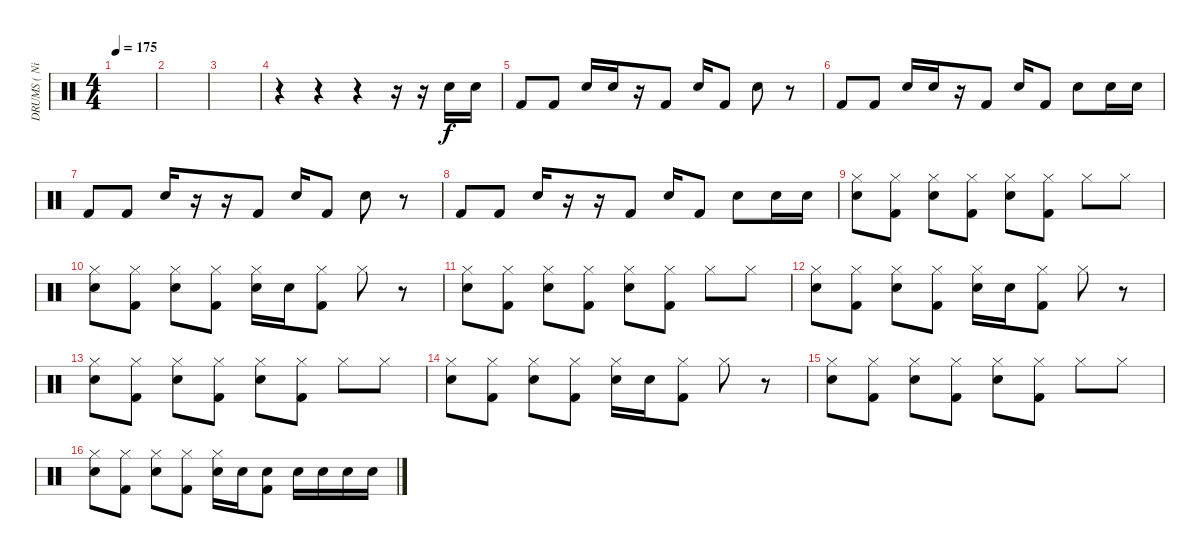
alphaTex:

\track ("DRUMS ( Nick Oshiro )" "DRUMS ( Ni") {instrument percussion}
\staff {score}
\articulation defaults
\ts (4 4)
\tempo 175
\clef neutral
\ks c
|
|
|
r.4 r.4 r.4 r.16 r.16 "Electric Snare (hit)".16 "Electric Snare (hit)".16 |
"Kick (hit) 2".8 "Kick (hit) 2".8 "Electric Snare (hit)".16 "Electric Snare (hit)".16 r.16 "Kick (hit) 2".8 "Electric Snare (hit)".16 "Kick (hit) 2".8 "Electric Snare (hit)".8 r.8 |
"Kick (hit) 2".8 "Kick (hit) 2".8 "Electric Snare (hit)".16 "Electric Snare (hit)".16 r.16 "Kick (hit) 2".8 "Electric Snare (hit)".16 "Kick (hit) 2".8 "Electric Snare (hit)".8 "Electric Snare (hit)".16 "Electric Snare (hit)".16 |
"Kick (hit) 2".8 "Kick (hit) 2".8 "Electric Snare (hit)".16 r.16 r.16 "Kick (hit) 2".8 "Electric Snare (hit)".16 "Kick (hit) 2".8 "Electric Snare (hit)".8 r.8 |
"Kick (hit) 2".8 "Kick (hit) 2".8 "Electric Snare (hit)".16 r.16 r.16 "Kick (hit) 2".8 "Electric Snare (hit)".16 "Kick (hit) 2".8 "Electric Snare (hit)".8 "Electric Snare (hit)".16 "Electric Snare (hit)".16 |
("Electric Snare (hit)" "Hi-Hat (closed)").8 ("Kick (hit) 2" "Hi-Hat (closed)").8 ("Electric Snare (hit)" "Hi-Hat (closed)").8 ("Kick (hit) 2" "Hi-Hat (closed)").8 ("Electric Snare (hit)" "Hi-Hat (closed)").8 ("Kick (hit) 2" "Hi-Hat (closed)").8 "Hi-Hat (closed)".8 "Hi-Hat (closed)".8 |
("Electric Snare (hit)" "Hi-Hat (closed)").8 ("Kick (hit) 2" "Hi-Hat (closed)").8 ("Electric Snare (hit)" "Hi-Hat (closed)").8 ("Kick (hit) 2" "Hi-Hat (closed)").8 ("Electric Snare (hit)" "Hi-Hat (closed)").16 "Electric Snare (hit)".16 ("Kick (hit) 2" "Hi-Hat (closed)").8 "Hi-Hat (closed)".8 r.8 |
("Electric Snare (hit)" "Hi-Hat (closed)").8 ("Kick (hit) 2" "Hi-Hat (closed)").8 ("Electric Snare (hit)" "Hi-Hat (closed)").8 ("Kick (hit) 2" "Hi-Hat (closed)").8 ("Electric Snare (hit)" "Hi-Hat (closed)").8 ("Kick (hit) 2" "Hi-Hat (closed)").8 "Hi-Hat (closed)".8 "Hi-Hat (closed)".8 |
("Electric Snare (hit)" "Hi-Hat (closed)").8 ("Kick (hit) 2" "Hi-Hat (closed)").8 ("Electric Snare (hit)" "Hi-Hat (closed)").8 ("Kick (hit) 2" "Hi-Hat (closed)").8 ("Electric Snare (hit)" "Hi-Hat (closed)").16 "Electric Snare (hit)".16 ("Kick (hit) 2" "Hi-Hat (closed)").8 "Hi-Hat (closed)".8 r.8 |
("Electric Snare (hit)" "Hi-Hat (closed)").8 ("Kick (hit) 2" "Hi-Hat (closed)").8 ("Electric Snare (hit)" "Hi-Hat (closed)").8 ("Kick (hit) 2" "Hi-Hat (closed)").8 ("Electric Snare (hit)" "Hi-Hat (closed)").8 ("Kick (hit) 2" "Hi-Hat (closed)").8 "Hi-Hat (closed)".8 "Hi-Hat (closed)".8 |
("Electric Snare (hit)" "Hi-Hat (closed)").8 ("Kick (hit) 2" "Hi-Hat (closed)").8 ("Electric Snare (hit)" "Hi-Hat (closed)").8 ("Kick (hit) 2" "Hi-Hat (closed)").8 ("Electric Snare (hit)" "Hi-Hat (closed)").16 "Electric Snare (hit)".16 ("Kick (hit) 2" "Hi-Hat (closed)").8 "Hi-Hat (closed)".8 r.8 |
("Electric Snare (hit)" "Hi-Hat (closed)").8 ("Kick (hit) 2" "Hi-Hat (closed)").8 ("Electric Snare (hit)" "Hi-Hat (closed)").8 ("Kick (hit) 2" "Hi-Hat (closed)").8 ("Electric Snare (hit)" "Hi-Hat (closed)").8 ("Kick (hit) 2" "Hi-Hat (closed)").8 "Hi-Hat (closed)".8 "Hi-Hat (closed)".8 |
("Electric Snare (hit)" "Hi-Hat (closed)").8 ("Kick (hit) 2" "Hi-Hat (closed)").8 ("Electric Snare (hit)" "Hi-Hat (closed)").8 ("Kick (hit) 2" "Hi-Hat (closed)").8 ("Electric Snare (hit)" "Hi-Hat (closed)").16 "Electric Snare (hit)".16 ("Kick (hit) 2" "Electric Snare (hit)").8 "Electric Snare (hit)".16 "Electric Snare (hit)".16 "Electric Snare (hit)".16 "Electric Snare (hit)".16
